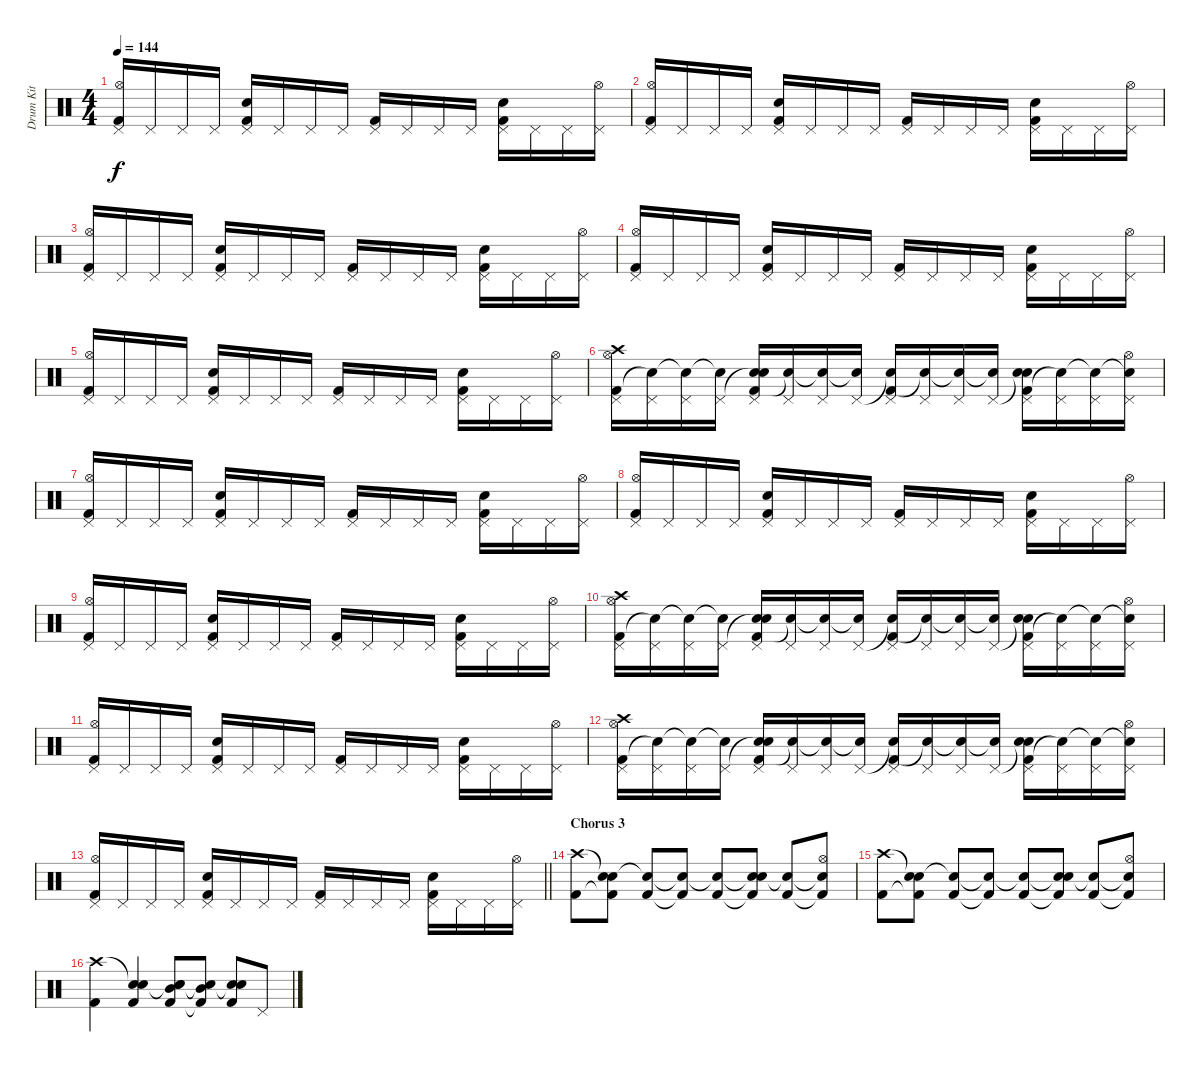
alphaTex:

\track ("Drum Kit" "Drum Kit") {instrument percussion}
\staff {score}
\articulation defaults
\ts (4 4)
\tempo 144
\clef neutral
\ks c
("Kick (hit) 2" "Hi-Hat (open)" "Pedal Hi-Hat (hit)").16{dy f} "Pedal Hi-Hat (hit)".16 "Pedal Hi-Hat (hit)".16 "Pedal Hi-Hat (hit)".16 ("Kick (hit) 2" "Electric Snare (hit)" "Pedal Hi-Hat (hit)").16 "Pedal Hi-Hat (hit)".16 "Pedal Hi-Hat (hit)".16 "Pedal Hi-Hat (hit)".16 ("Kick (hit) 2" "Pedal Hi-Hat (hit)").16 "Pedal Hi-Hat (hit)".16 "Pedal Hi-Hat (hit)".16 "Pedal Hi-Hat (hit)".16 ("Kick (hit) 2" "Electric Snare (hit)" "Pedal Hi-Hat (hit)").16 "Pedal Hi-Hat (hit)".16 "Pedal Hi-Hat (hit)".16 ("Hi-Hat (open)" "Pedal Hi-Hat (hit)").16 |
("Kick (hit) 2" "Hi-Hat (open)" "Pedal Hi-Hat (hit)").16 "Pedal Hi-Hat (hit)".16 "Pedal Hi-Hat (hit)".16 "Pedal Hi-Hat (hit)".16 ("Kick (hit) 2" "Electric Snare (hit)" "Pedal Hi-Hat (hit)").16 "Pedal Hi-Hat (hit)".16 "Pedal Hi-Hat (hit)".16 "Pedal Hi-Hat (hit)".16 ("Kick (hit) 2" "Pedal Hi-Hat (hit)").16 "Pedal Hi-Hat (hit)".16 "Pedal Hi-Hat (hit)".16 "Pedal Hi-Hat (hit)".16 ("Kick (hit) 2" "Electric Snare (hit)" "Pedal Hi-Hat (hit)").16 "Pedal Hi-Hat (hit)".16 "Pedal Hi-Hat (hit)".16 ("Hi-Hat (open)" "Pedal Hi-Hat (hit)").16 |
("Kick (hit) 2" "Hi-Hat (open)" "Pedal Hi-Hat (hit)").16 "Pedal Hi-Hat (hit)".16 "Pedal Hi-Hat (hit)".16 "Pedal Hi-Hat (hit)".16 ("Kick (hit) 2" "Electric Snare (hit)" "Pedal Hi-Hat (hit)").16 "Pedal Hi-Hat (hit)".16 "Pedal Hi-Hat (hit)".16 "Pedal Hi-Hat (hit)".16 ("Kick (hit) 2" "Pedal Hi-Hat (hit)").16 "Pedal Hi-Hat (hit)".16 "Pedal Hi-Hat (hit)".16 "Pedal Hi-Hat (hit)".16 ("Kick (hit) 2" "Electric Snare (hit)" "Pedal Hi-Hat (hit)").16 "Pedal Hi-Hat (hit)".16 "Pedal Hi-Hat (hit)".16 ("Hi-Hat (open)" "Pedal Hi-Hat (hit)").16 |
("Kick (hit) 2" "Hi-Hat (open)" "Pedal Hi-Hat (hit)").16 "Pedal Hi-Hat (hit)".16 "Pedal Hi-Hat (hit)".16 "Pedal Hi-Hat (hit)".16 ("Kick (hit) 2" "Electric Snare (hit)" "Pedal Hi-Hat (hit)").16 "Pedal Hi-Hat (hit)".16 "Pedal Hi-Hat (hit)".16 "Pedal Hi-Hat (hit)".16 ("Kick (hit) 2" "Pedal Hi-Hat (hit)").16 "Pedal Hi-Hat (hit)".16 "Pedal Hi-Hat (hit)".16 "Pedal Hi-Hat (hit)".16 ("Kick (hit) 2" "Electric Snare (hit)" "Pedal Hi-Hat (hit)").16 "Pedal Hi-Hat (hit)".16 "Pedal Hi-Hat (hit)".16 ("Hi-Hat (open)" "Pedal Hi-Hat (hit)").16 |
("Kick (hit) 2" "Hi-Hat (open)" "Pedal Hi-Hat (hit)").16 "Pedal Hi-Hat (hit)".16 "Pedal Hi-Hat (hit)".16 "Pedal Hi-Hat (hit)".16 ("Kick (hit) 2" "Electric Snare (hit)" "Pedal Hi-Hat (hit)").16 "Pedal Hi-Hat (hit)".16 "Pedal Hi-Hat (hit)".16 "Pedal Hi-Hat (hit)".16 ("Kick (hit) 2" "Pedal Hi-Hat (hit)").16 "Pedal Hi-Hat (hit)".16 "Pedal Hi-Hat (hit)".16 "Pedal Hi-Hat (hit)".16 ("Kick (hit) 2" "Electric Snare (hit)" "Pedal Hi-Hat (hit)").16 "Pedal Hi-Hat (hit)".16 "Pedal Hi-Hat (hit)".16 ("Hi-Hat (open)" "Pedal Hi-Hat (hit)").16 |
("Kick (hit) 2" "Crash high (hit)" "Hi-Hat (open)" "Pedal Hi-Hat (hit)").16 ("Snare (hit)"{t} "Pedal Hi-Hat (hit)").16 ("Snare (hit)"{t} "Pedal Hi-Hat (hit)").16 ("Snare (hit)"{t} "Pedal Hi-Hat (hit)").16 ("Kick (hit) 2" "Snare (hit)"{t} "Electric Snare (hit)" "Pedal Hi-Hat (hit)").16 ("Snare (hit)"{t} "Pedal Hi-Hat (hit)").16 ("Snare (hit)"{t} "Pedal Hi-Hat (hit)").16 ("Snare (hit)"{t} "Pedal Hi-Hat (hit)").16 ("Kick (hit) 2" "Snare (hit)"{t} "Pedal Hi-Hat (hit)").16 ("Snare (hit)"{t} "Pedal Hi-Hat (hit)").16 ("Snare (hit)"{t} "Pedal Hi-Hat (hit)").16 ("Snare (hit)"{t} "Pedal Hi-Hat (hit)").16 ("Kick (hit) 2" "Snare (hit)"{t} "Electric Snare (hit)" "Pedal Hi-Hat (hit)").16 ("Snare (hit)"{t} "Pedal Hi-Hat (hit)").16 ("Snare (hit)"{t} "Pedal Hi-Hat (hit)").16 ("Snare (hit)"{t} "Hi-Hat (open)" "Pedal Hi-Hat (hit)").16 |
("Kick (hit) 2" "Hi-Hat (open)" "Pedal Hi-Hat (hit)").16 "Pedal Hi-Hat (hit)".16 "Pedal Hi-Hat (hit)".16 "Pedal Hi-Hat (hit)".16 ("Kick (hit) 2" "Electric Snare (hit)" "Pedal Hi-Hat (hit)").16 "Pedal Hi-Hat (hit)".16 "Pedal Hi-Hat (hit)".16 "Pedal Hi-Hat (hit)".16 ("Kick (hit) 2" "Pedal Hi-Hat (hit)").16 "Pedal Hi-Hat (hit)".16 "Pedal Hi-Hat (hit)".16 "Pedal Hi-Hat (hit)".16 ("Kick (hit) 2" "Electric Snare (hit)" "Pedal Hi-Hat (hit)").16 "Pedal Hi-Hat (hit)".16 "Pedal Hi-Hat (hit)".16 ("Hi-Hat (open)" "Pedal Hi-Hat (hit)").16 |
("Kick (hit) 2" "Hi-Hat (open)" "Pedal Hi-Hat (hit)").16 "Pedal Hi-Hat (hit)".16 "Pedal Hi-Hat (hit)".16 "Pedal Hi-Hat (hit)".16 ("Kick (hit) 2" "Electric Snare (hit)" "Pedal Hi-Hat (hit)").16 "Pedal Hi-Hat (hit)".16 "Pedal Hi-Hat (hit)".16 "Pedal Hi-Hat (hit)".16 ("Kick (hit) 2" "Pedal Hi-Hat (hit)").16 "Pedal Hi-Hat (hit)".16 "Pedal Hi-Hat (hit)".16 "Pedal Hi-Hat (hit)".16 ("Kick (hit) 2" "Electric Snare (hit)" "Pedal Hi-Hat (hit)").16 "Pedal Hi-Hat (hit)".16 "Pedal Hi-Hat (hit)".16 ("Hi-Hat (open)" "Pedal Hi-Hat (hit)").16 |
("Kick (hit) 2" "Hi-Hat (open)" "Pedal Hi-Hat (hit)").16 "Pedal Hi-Hat (hit)".16 "Pedal Hi-Hat (hit)".16 "Pedal Hi-Hat (hit)".16 ("Kick (hit) 2" "Electric Snare (hit)" "Pedal Hi-Hat (hit)").16 "Pedal Hi-Hat (hit)".16 "Pedal Hi-Hat (hit)".16 "Pedal Hi-Hat (hit)".16 ("Kick (hit) 2" "Pedal Hi-Hat (hit)").16 "Pedal Hi-Hat (hit)".16 "Pedal Hi-Hat (hit)".16 "Pedal Hi-Hat (hit)".16 ("Kick (hit) 2" "Electric Snare (hit)" "Pedal Hi-Hat (hit)").16 "Pedal Hi-Hat (hit)".16 "Pedal Hi-Hat (hit)".16 ("Hi-Hat (open)" "Pedal Hi-Hat (hit)").16 |
("Kick (hit) 2" "Crash high (hit)" "Hi-Hat (open)" "Pedal Hi-Hat (hit)").16 ("Snare (hit)"{t} "Pedal Hi-Hat (hit)").16 ("Snare (hit)"{t} "Pedal Hi-Hat (hit)").16 ("Snare (hit)"{t} "Pedal Hi-Hat (hit)").16 ("Kick (hit) 2" "Snare (hit)"{t} "Electric Snare (hit)" "Pedal Hi-Hat (hit)").16 ("Snare (hit)"{t} "Pedal Hi-Hat (hit)").16 ("Snare (hit)"{t} "Pedal Hi-Hat (hit)").16 ("Snare (hit)"{t} "Pedal Hi-Hat (hit)").16 ("Kick (hit) 2" "Snare (hit)"{t} "Pedal Hi-Hat (hit)").16 ("Snare (hit)"{t} "Pedal Hi-Hat (hit)").16 ("Snare (hit)"{t} "Pedal Hi-Hat (hit)").16 ("Snare (hit)"{t} "Pedal Hi-Hat (hit)").16 ("Kick (hit) 2" "Snare (hit)"{t} "Electric Snare (hit)" "Pedal Hi-Hat (hit)").16 ("Snare (hit)"{t} "Pedal Hi-Hat (hit)").16 ("Snare (hit)"{t} "Pedal Hi-Hat (hit)").16 ("Snare (hit)"{t} "Hi-Hat (open)" "Pedal Hi-Hat (hit)").16 |
("Kick (hit) 2" "Hi-Hat (open)" "Pedal Hi-Hat (hit)").16 "Pedal Hi-Hat (hit)".16 "Pedal Hi-Hat (hit)".16 "Pedal Hi-Hat (hit)".16 ("Kick (hit) 2" "Electric Snare (hit)" "Pedal Hi-Hat (hit)").16 "Pedal Hi-Hat (hit)".16 "Pedal Hi-Hat (hit)".16 "Pedal Hi-Hat (hit)".16 ("Kick (hit) 2" "Pedal Hi-Hat (hit)").16 "Pedal Hi-Hat (hit)".16 "Pedal Hi-Hat (hit)".16 "Pedal Hi-Hat (hit)".16 ("Kick (hit) 2" "Electric Snare (hit)" "Pedal Hi-Hat (hit)").16 "Pedal Hi-Hat (hit)".16 "Pedal Hi-Hat (hit)".16 ("Hi-Hat (open)" "Pedal Hi-Hat (hit)").16 |
("Kick (hit) 2" "Crash high (hit)" "Hi-Hat (open)" "Pedal Hi-Hat (hit)").16 ("Snare (hit)"{t} "Pedal Hi-Hat (hit)").16 ("Snare (hit)"{t} "Pedal Hi-Hat (hit)").16 ("Snare (hit)"{t} "Pedal Hi-Hat (hit)").16 ("Kick (hit) 2" "Snare (hit)"{t} "Electric Snare (hit)" "Pedal Hi-Hat (hit)").16 ("Snare (hit)"{t} "Pedal Hi-Hat (hit)").16 ("Snare (hit)"{t} "Pedal Hi-Hat (hit)").16 ("Snare (hit)"{t} "Pedal Hi-Hat (hit)").16 ("Kick (hit) 2" "Snare (hit)"{t} "Pedal Hi-Hat (hit)").16 ("Snare (hit)"{t} "Pedal Hi-Hat (hit)").16 ("Snare (hit)"{t} "Pedal Hi-Hat (hit)").16 ("Snare (hit)"{t} "Pedal Hi-Hat (hit)").16 ("Kick (hit) 2" "Snare (hit)"{t} "Electric Snare (hit)" "Pedal Hi-Hat (hit)").16 ("Snare (hit)"{t} "Pedal Hi-Hat (hit)").16 ("Snare (hit)"{t} "Pedal Hi-Hat (hit)").16 ("Snare (hit)"{t} "Hi-Hat (open)" "Pedal Hi-Hat (hit)").16 |
\barLineRight lightlight
("Kick (hit) 2" "Hi-Hat (open)" "Pedal Hi-Hat (hit)").16 "Pedal Hi-Hat (hit)".16 "Pedal Hi-Hat (hit)".16 "Pedal Hi-Hat (hit)".16 ("Kick (hit) 2" "Electric Snare (hit)" "Pedal Hi-Hat (hit)").16 "Pedal Hi-Hat (hit)".16 "Pedal Hi-Hat (hit)".16 "Pedal Hi-Hat (hit)".16 ("Kick (hit) 2" "Pedal Hi-Hat (hit)").16 "Pedal Hi-Hat (hit)".16 "Pedal Hi-Hat (hit)".16 "Pedal Hi-Hat (hit)".16 ("Kick (hit) 2" "Electric Snare (hit)" "Pedal Hi-Hat (hit)").16 "Pedal Hi-Hat (hit)".16 "Pedal Hi-Hat (hit)".16 ("Hi-Hat (open)" "Pedal Hi-Hat (hit)").16 |
\section ("" "Chorus 3")
("Kick (hit) 2" "Crash high (hit)").8 ("Kick (hit) 2"{t} "Snare (hit)"{t} "Electric Snare (hit)").8 ("Kick (hit) 2" "Snare (hit)"{t}).8 ("Kick (hit) 2"{t} "Snare (hit)"{t}).8 ("Kick (hit) 2" "Snare (hit)"{t}).8 ("Kick (hit) 2"{t} "Snare (hit)"{t} "Electric Snare (hit)").8 ("Kick (hit) 2" "Snare (hit)"{t}).8 ("Kick (hit) 2"{t} "Snare (hit)"{t} "Hi-Hat (open)").8 |
("Kick (hit) 2" "Crash high (hit)").8 ("Kick (hit) 2"{t} "Snare (hit)"{t} "Electric Snare (hit)").8 ("Kick (hit) 2" "Snare (hit)"{t}).8 ("Kick (hit) 2"{t} "Snare (hit)"{t}).8 ("Kick (hit) 2" "Snare (hit)"{t}).8 ("Kick (hit) 2"{t} "Snare (hit)"{t} "Electric Snare (hit)").8 ("Kick (hit) 2" "Snare (hit)"{t}).8 ("Kick (hit) 2"{t} "Snare (hit)"{t} "Hi-Hat (open)").8 |
("Kick (hit) 2" "Crash high (hit)").4 ("Kick (hit) 2" "Snare (hit)"{t} "Snare (hit) 2").4 ("Kick (hit) 2" "Snare (hit)"{t} "Electric Snare (hit)" "Mid Tom (hit)").8 ("Kick (hit) 2"{t} "Snare (hit)"{t} "Mid Tom (hit)").8 ("Kick (hit) 2" "Snare (hit)"{t} "Snare (hit) 2").8 "Pedal Hi-Hat (hit)".8
